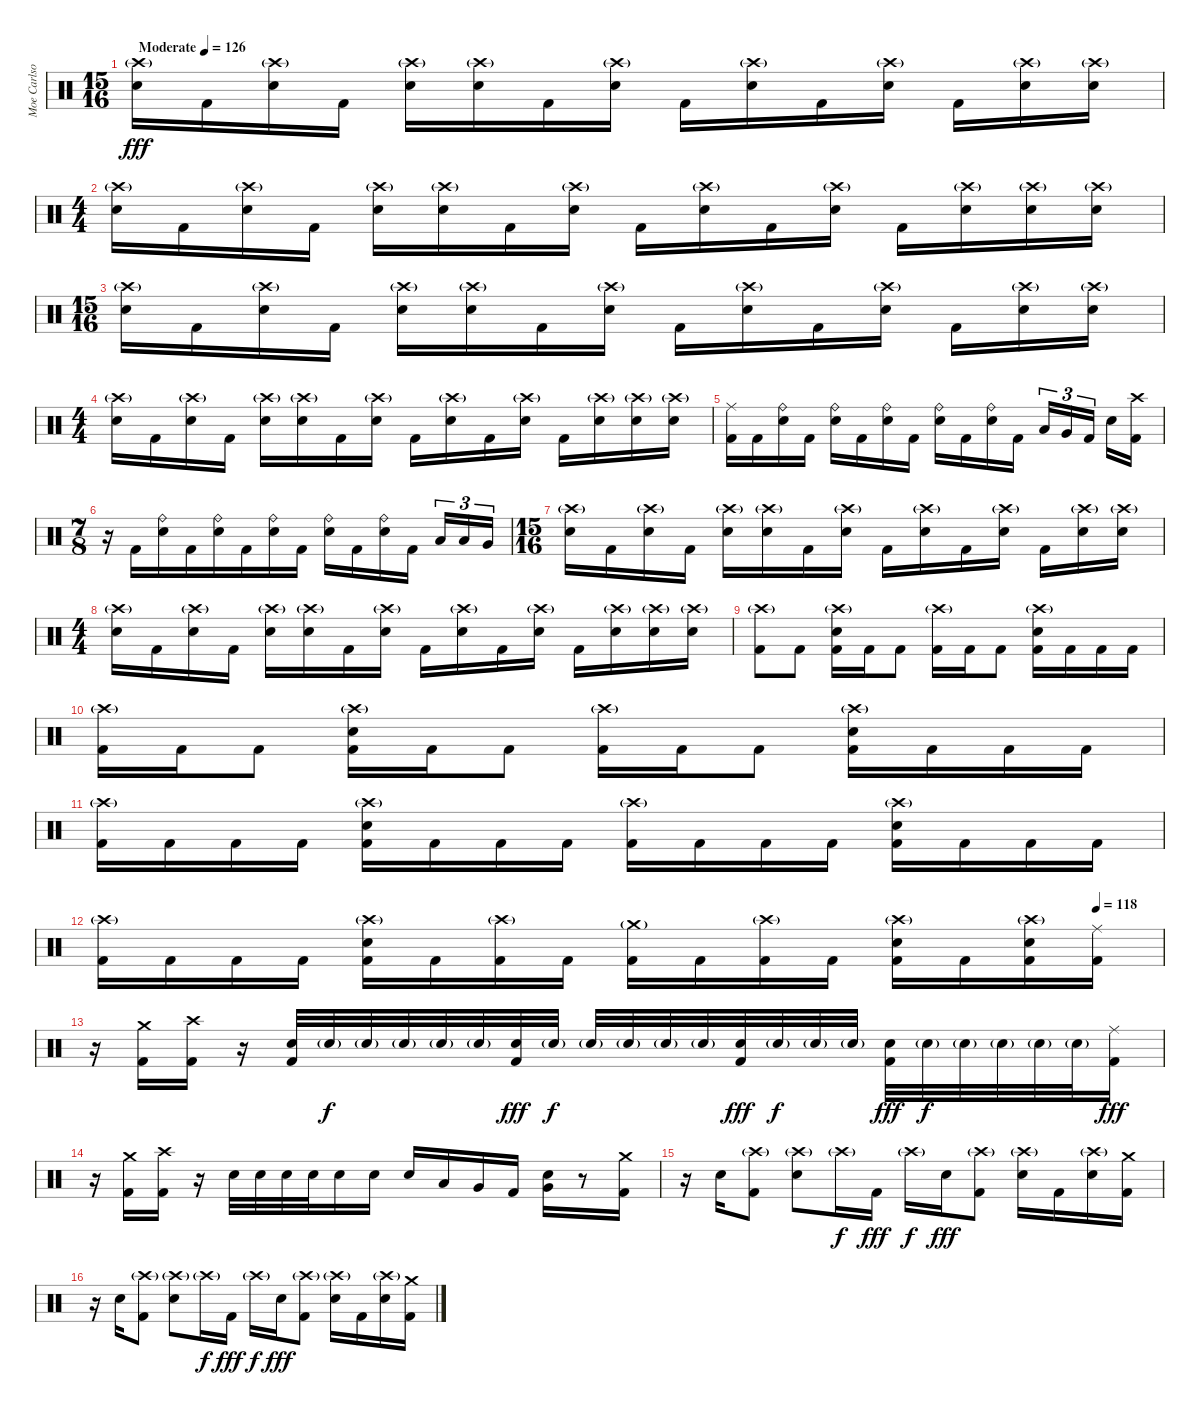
\track ("Moe Carlson" "Moe Carlso") {instrument percussion}
\staff {score}
\articulation defaults
\ts (15 16)
\tempo (126 "Moderate")
\clef neutral
\ks c
("Crash high (hit)"{g} "Electric Snare (hit)").16{dy fff} "Kick (hit) 2".16 ("Crash high (hit)"{g} "Electric Snare (hit)").16 "Kick (hit) 2".16 ("Crash high (hit)"{g} "Electric Snare (hit)").16 ("Crash high (hit)"{g} "Electric Snare (hit)").16 "Kick (hit) 2".16 ("Crash high (hit)"{g} "Electric Snare (hit)").16 "Kick (hit) 2".16 ("Crash high (hit)"{g} "Electric Snare (hit)").16 "Kick (hit) 2".16 ("Crash high (hit)"{g} "Electric Snare (hit)").16 "Kick (hit) 2".16 ("Crash high (hit)"{g} "Electric Snare (hit)").16 ("Crash high (hit)"{g} "Electric Snare (hit)").16 |
\ts (4 4)
("Crash high (hit)"{g} "Electric Snare (hit)").16 "Kick (hit) 2".16 ("Crash high (hit)"{g} "Electric Snare (hit)").16 "Kick (hit) 2".16 ("Crash high (hit)"{g} "Electric Snare (hit)").16 ("Crash high (hit)"{g} "Electric Snare (hit)").16 "Kick (hit) 2".16 ("Crash high (hit)"{g} "Electric Snare (hit)").16 "Kick (hit) 2".16 ("Crash high (hit)"{g} "Electric Snare (hit)").16 "Kick (hit) 2".16 ("Crash high (hit)"{g} "Electric Snare (hit)").16 "Kick (hit) 2".16 ("Crash high (hit)"{g} "Electric Snare (hit)").16 ("Crash high (hit)"{g} "Electric Snare (hit)").16 ("Crash high (hit)"{g} "Electric Snare (hit)").16 |
\ts (15 16)
("Crash high (hit)"{g} "Electric Snare (hit)").16 "Kick (hit) 2".16 ("Crash high (hit)"{g} "Electric Snare (hit)").16 "Kick (hit) 2".16 ("Crash high (hit)"{g} "Electric Snare (hit)").16 ("Crash high (hit)"{g} "Electric Snare (hit)").16 "Kick (hit) 2".16 ("Crash high (hit)"{g} "Electric Snare (hit)").16 "Kick (hit) 2".16 ("Crash high (hit)"{g} "Electric Snare (hit)").16 "Kick (hit) 2".16 ("Crash high (hit)"{g} "Electric Snare (hit)").16 "Kick (hit) 2".16 ("Crash high (hit)"{g} "Electric Snare (hit)").16 ("Crash high (hit)"{g} "Electric Snare (hit)").16 |
\ts (4 4)
("Crash high (hit)"{g} "Electric Snare (hit)").16 "Kick (hit) 2".16 ("Crash high (hit)"{g} "Electric Snare (hit)").16 "Kick (hit) 2".16 ("Crash high (hit)"{g} "Electric Snare (hit)").16 ("Crash high (hit)"{g} "Electric Snare (hit)").16 "Kick (hit) 2".16 ("Crash high (hit)"{g} "Electric Snare (hit)").16 "Kick (hit) 2".16 ("Crash high (hit)"{g} "Electric Snare (hit)").16 "Kick (hit) 2".16 ("Crash high (hit)"{g} "Electric Snare (hit)").16 "Kick (hit) 2".16 ("Crash high (hit)"{g} "Electric Snare (hit)").16 ("Crash high (hit)"{g} "Electric Snare (hit)").16 ("Crash high (hit)"{g} "Electric Snare (hit)").16 |
("Ride (middle)" "Kick (hit) 2").16 "Kick (hit) 2".16 ("Ride (bell)" "Electric Snare (hit)").16 "Kick (hit) 2".16 ("Ride (bell)" "Electric Snare (hit)").16 "Kick (hit) 2".16 ("Ride (bell)" "Electric Snare (hit)").16 "Kick (hit) 2".16 ("Ride (bell)" "Electric Snare (hit)").16 "Kick (hit) 2".16 ("Ride (bell)" "Electric Snare (hit)").16 "Kick (hit) 2".16 "Low Tom (hit)".16{tu (3 2)} "Very Low Tom (hit)".16{tu (3 2)} "Kick (hit) 2".16{tu (3 2) beam splitsecondary} "Electric Snare (hit)".16 ("Crash high (hit)" "Kick (hit) 2").16 |
\ts (7 8)
r.16 "Kick (hit) 2".16 ("Ride (bell)" "Electric Snare (hit)").16 "Kick (hit) 2".16 ("Ride (bell)" "Electric Snare (hit)").16 "Kick (hit) 2".16 ("Ride (bell)" "Electric Snare (hit)").16 "Kick (hit) 2".16 ("Ride (bell)" "Electric Snare (hit)").16 "Kick (hit) 2".16 ("Ride (bell)" "Electric Snare (hit)").16 "Kick (hit) 2".16 "Low Tom (hit)".16{tu (3 2)} "Low Tom (hit)".16{tu (3 2)} "Very Low Tom (hit)".16{tu (3 2)} |
\ts (15 16)
("Crash high (hit)"{g} "Electric Snare (hit)").16 "Kick (hit) 2".16 ("Crash high (hit)"{g} "Electric Snare (hit)").16 "Kick (hit) 2".16 ("Crash high (hit)"{g} "Electric Snare (hit)").16 ("Crash high (hit)"{g} "Electric Snare (hit)").16 "Kick (hit) 2".16 ("Crash high (hit)"{g} "Electric Snare (hit)").16 "Kick (hit) 2".16 ("Crash high (hit)"{g} "Electric Snare (hit)").16 "Kick (hit) 2".16 ("Crash high (hit)"{g} "Electric Snare (hit)").16 "Kick (hit) 2".16 ("Crash high (hit)"{g} "Electric Snare (hit)").16 ("Crash high (hit)"{g} "Electric Snare (hit)").16 |
\ts (4 4)
("Crash high (hit)"{g} "Electric Snare (hit)").16 "Kick (hit) 2".16 ("Crash high (hit)"{g} "Electric Snare (hit)").16 "Kick (hit) 2".16 ("Crash high (hit)"{g} "Electric Snare (hit)").16 ("Crash high (hit)"{g} "Electric Snare (hit)").16 "Kick (hit) 2".16 ("Crash high (hit)"{g} "Electric Snare (hit)").16 "Kick (hit) 2".16 ("Crash high (hit)"{g} "Electric Snare (hit)").16 "Kick (hit) 2".16 ("Crash high (hit)"{g} "Electric Snare (hit)").16 "Kick (hit) 2".16 ("Crash high (hit)"{g} "Electric Snare (hit)").16 ("Crash high (hit)"{g} "Electric Snare (hit)").16 ("Crash high (hit)"{g} "Electric Snare (hit)").16 |
("Crash high (hit)"{g} "Kick (hit) 2").8 "Kick (hit) 2".8 ("Crash high (hit)"{g} "Electric Snare (hit)" "Kick (hit) 2").16 "Kick (hit) 2".16 "Kick (hit) 2".8 ("Crash high (hit)"{g} "Kick (hit) 2").16 "Kick (hit) 2".16 "Kick (hit) 2".8 ("Crash high (hit)"{g} "Electric Snare (hit)" "Kick (hit) 2").16 "Kick (hit) 2".16 "Kick (hit) 2".16 "Kick (hit) 2".16 |
("Crash high (hit)"{g} "Kick (hit) 2").16 "Kick (hit) 2".16 "Kick (hit) 2".8 ("Crash high (hit)"{g} "Electric Snare (hit)" "Kick (hit) 2").16 "Kick (hit) 2".16 "Kick (hit) 2".8 ("Crash high (hit)"{g} "Kick (hit) 2").16 "Kick (hit) 2".16 "Kick (hit) 2".8 ("Crash high (hit)"{g} "Electric Snare (hit)" "Kick (hit) 2").16 "Kick (hit) 2".16 "Kick (hit) 2".16 "Kick (hit) 2".16 |
("Crash high (hit)"{g} "Kick (hit) 2").16 "Kick (hit) 2".16 "Kick (hit) 2".16 "Kick (hit) 2".16 ("Crash high (hit)"{g} "Electric Snare (hit)" "Kick (hit) 2").16 "Kick (hit) 2".16 "Kick (hit) 2".16 "Kick (hit) 2".16 ("Crash high (hit)"{g} "Kick (hit) 2").16 "Kick (hit) 2".16 "Kick (hit) 2".16 "Kick (hit) 2".16 ("Crash high (hit)"{g} "Electric Snare (hit)" "Kick (hit) 2").16 "Kick (hit) 2".16 "Kick (hit) 2".16 "Kick (hit) 2".16 |
\tempo (118 0.9375)
("Crash high (hit)"{g} "Kick (hit) 2").16 "Kick (hit) 2".16 "Kick (hit) 2".16 "Kick (hit) 2".16 ("Crash high (hit)"{g} "Electric Snare (hit)" "Kick (hit) 2").16 "Kick (hit) 2".16 ("Crash high (hit)"{g} "Kick (hit) 2").16 "Kick (hit) 2".16 ("Crash medium (hit)"{g} "Kick (hit) 2").16 "Kick (hit) 2".16 ("Crash high (hit)"{g} "Kick (hit) 2").16 "Kick (hit) 2".16 ("Crash high (hit)"{g} "Electric Snare (hit)" "Kick (hit) 2").16 "Kick (hit) 2".16 ("Crash high (hit)"{g} "Electric Snare (hit)" "Kick (hit) 2").16 ("Ride (middle)" "Kick (hit) 2").16 |
r.16 ("Crash medium (hit)" "Kick (hit) 2").16 ("Crash high (hit)" "Kick (hit) 2").16 r.16 ("Electric Snare (hit)" "Kick (hit) 2").32 "Electric Snare (hit)"{g}.32{dy f} "Electric Snare (hit)"{g}.32 "Electric Snare (hit)"{g}.32 "Electric Snare (hit)"{g}.32 "Electric Snare (hit)"{g}.32 ("Electric Snare (hit)" "Kick (hit) 2").32{dy fff} "Electric Snare (hit)"{g}.32{dy f} "Electric Snare (hit)"{g}.32 "Electric Snare (hit)"{g}.32 "Electric Snare (hit)"{g}.32 "Electric Snare (hit)"{g}.32 ("Electric Snare (hit)" "Kick (hit) 2").32{dy fff} "Electric Snare (hit)"{g}.32{dy f} "Electric Snare (hit)"{g}.32 "Electric Snare (hit)"{g}.32 ("Electric Snare (hit)" "Kick (hit) 2").32{dy fff} "Electric Snare (hit)"{g}.32{dy f} "Electric Snare (hit)"{g}.32 "Electric Snare (hit)"{g}.32 "Electric Snare (hit)"{g}.32 "Electric Snare (hit)"{g}.32 ("Ride (middle)" "Kick (hit) 2").16{dy fff} |
r.16 ("Crash medium (hit)" "Kick (hit) 2").16 ("Crash high (hit)" "Kick (hit) 2").16 r.16 "Electric Snare (hit)".32 "Electric Snare (hit)".32 "Electric Snare (hit)".32 "Electric Snare (hit)".32 "Electric Snare (hit)".16 "Electric Snare (hit)".16 "Electric Snare (hit)".16 "Low Tom (hit)".16 "Very Low Tom (hit)".16 "Kick (hit) 2".16 ("Electric Snare (hit)" "Very Low Tom (hit)").16 r.8 ("Crash medium (hit)" "Kick (hit) 2").16 |
r.16 "Electric Snare (hit)".16 ("Crash high (hit)"{g} "Kick (hit) 2").8 ("Crash high (hit)"{g} "Electric Snare (hit)").8 "Crash high (hit)"{g}.16{dy f} "Kick (hit) 2".16{dy fff} "Crash high (hit)"{g}.16{dy f} "Electric Snare (hit)".16{dy fff} ("Crash high (hit)"{g} "Kick (hit) 2").8 ("Crash high (hit)"{g} "Electric Snare (hit)").16 "Kick (hit) 2".16 ("Crash high (hit)"{g} "Electric Snare (hit)").16 ("Crash medium (hit)" "Kick (hit) 2").16 |
r.16 "Electric Snare (hit)".16 ("Crash high (hit)"{g} "Kick (hit) 2").8 ("Crash high (hit)"{g} "Electric Snare (hit)").8 "Crash high (hit)"{g}.16{dy f} "Kick (hit) 2".16{dy fff} "Crash high (hit)"{g}.16{dy f} "Electric Snare (hit)".16{dy fff} ("Crash high (hit)"{g} "Kick (hit) 2").8 ("Crash high (hit)"{g} "Electric Snare (hit)").16 "Kick (hit) 2".16 ("Crash high (hit)"{g} "Electric Snare (hit)").16 ("Crash medium (hit)" "Kick (hit) 2").16
